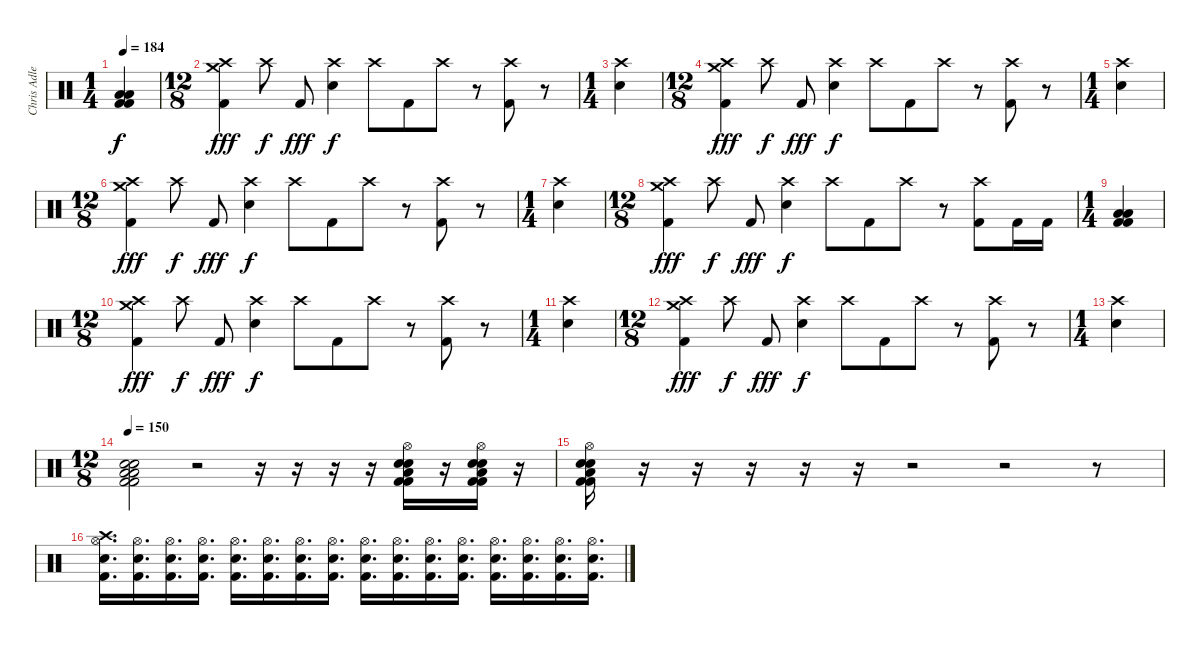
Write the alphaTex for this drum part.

\track ("Chris Adler" "Chris Adle") {instrument percussion}
\staff {score}
\articulation defaults
\ts (1 4)
\tempo 184
\clef neutral
\ks c
("Low Floor Tom (hit)" "Low Floor Tom (hit)" "Kick (hit) 2" "Kick (hit) 2").4{dy f} |
\ts (12 8)
("Crash high (hit)" "Crash medium (hit)" "Kick (hit) 2").4{dy fff} "Crash high (hit)".8{dy f} "Kick (hit) 2".8{dy fff} ("Crash high (hit)" "Electric Snare (hit)").4{dy f} "Crash high (hit)".8 "Kick (hit) 2".8 "Crash high (hit)".8 r.8 ("Crash high (hit)" "Kick (hit) 2").8 r.8 |
\ts (1 4)
("Crash high (hit)" "Electric Snare (hit)").4 |
\ts (12 8)
("Crash high (hit)" "Crash medium (hit)" "Kick (hit) 2").4{dy fff} "Crash high (hit)".8{dy f} "Kick (hit) 2".8{dy fff} ("Crash high (hit)" "Electric Snare (hit)").4{dy f} "Crash high (hit)".8 "Kick (hit) 2".8 "Crash high (hit)".8 r.8 ("Crash high (hit)" "Kick (hit) 2").8 r.8 |
\ts (1 4)
("Crash high (hit)" "Electric Snare (hit)").4 |
\ts (12 8)
("Crash high (hit)" "Crash medium (hit)" "Kick (hit) 2").4{dy fff} "Crash high (hit)".8{dy f} "Kick (hit) 2".8{dy fff} ("Crash high (hit)" "Electric Snare (hit)").4{dy f} "Crash high (hit)".8 "Kick (hit) 2".8 "Crash high (hit)".8 r.8 ("Crash high (hit)" "Kick (hit) 2").8 r.8 |
\ts (1 4)
("Crash high (hit)" "Electric Snare (hit)").4 |
\ts (12 8)
("Crash high (hit)" "Crash medium (hit)" "Kick (hit) 2").4{dy fff} "Crash high (hit)".8{dy f} "Kick (hit) 2".8{dy fff} ("Crash high (hit)" "Electric Snare (hit)").4{dy f} "Crash high (hit)".8 "Kick (hit) 2".8 "Crash high (hit)".8 r.8 ("Crash high (hit)" "Kick (hit) 2").8 "Kick (hit) 2".16 "Kick (hit) 2".16 |
\ts (1 4)
("Low Floor Tom (hit)" "Low Floor Tom (hit)" "Kick (hit) 2" "Kick (hit) 2").4 |
\ts (12 8)
("Crash high (hit)" "Crash medium (hit)" "Kick (hit) 2").4{dy fff} "Crash high (hit)".8{dy f} "Kick (hit) 2".8{dy fff} ("Crash high (hit)" "Electric Snare (hit)").4{dy f} "Crash high (hit)".8 "Kick (hit) 2".8 "Crash high (hit)".8 r.8 ("Crash high (hit)" "Kick (hit) 2").8 r.8 |
\ts (1 4)
("Crash high (hit)" "Electric Snare (hit)").4 |
\ts (12 8)
("Crash high (hit)" "Crash medium (hit)" "Kick (hit) 2").4{dy fff} "Crash high (hit)".8{dy f} "Kick (hit) 2".8{dy fff} ("Crash high (hit)" "Electric Snare (hit)").4{dy f} "Crash high (hit)".8 "Kick (hit) 2".8 "Crash high (hit)".8 r.8 ("Crash high (hit)" "Kick (hit) 2").8 r.8 |
\ts (1 4)
("Crash high (hit)" "Electric Snare (hit)").4 |
\ts (12 8)
\tempo 150
("Electric Snare (hit)" "Electric Snare (hit)" "Low Floor Tom (hit)" "Low Floor Tom (hit)" "Kick (hit) 2" "Kick (hit) 2").2 r.2 r.16 r.16 r.16 r.16 ("Hi-Hat (open)" "Electric Snare (hit)" "Electric Snare (hit)" "Low Floor Tom (hit)" "Kick (hit) 2" "Kick (hit) 2").16 r.16 ("Hi-Hat (open)" "Electric Snare (hit)" "Electric Snare (hit)" "Low Floor Tom (hit)" "Kick (hit) 2" "Kick (hit) 2").16 r.16 |
("Hi-Hat (open)" "Electric Snare (hit)" "Electric Snare (hit)" "Low Floor Tom (hit)" "Kick (hit) 2" "Kick (hit) 2").16 r.16 r.16{volume 0} r.16 r.16 r.16 r.2 r.2 r.8 |
("Crash high (hit)" "Hi-Hat (open)" "Electric Snare (hit)" "Kick (hit) 2").16{d volume 16} ("Hi-Hat (open)" "Electric Snare (hit)" "Kick (hit) 2").16{d} ("Hi-Hat (open)" "Electric Snare (hit)" "Kick (hit) 2").16{d} ("Hi-Hat (open)" "Electric Snare (hit)" "Kick (hit) 2").16{d} ("Hi-Hat (open)" "Electric Snare (hit)" "Kick (hit) 2").16{d} ("Hi-Hat (open)" "Electric Snare (hit)" "Kick (hit) 2").16{d} ("Hi-Hat (open)" "Electric Snare (hit)" "Kick (hit) 2").16{d} ("Hi-Hat (open)" "Electric Snare (hit)" "Kick (hit) 2").16{d} ("Hi-Hat (open)" "Electric Snare (hit)" "Kick (hit) 2").16{d} ("Hi-Hat (open)" "Electric Snare (hit)" "Kick (hit) 2").16{d} ("Hi-Hat (open)" "Electric Snare (hit)" "Kick (hit) 2").16{d} ("Hi-Hat (open)" "Electric Snare (hit)" "Kick (hit) 2").16{d} ("Hi-Hat (open)" "Electric Snare (hit)" "Kick (hit) 2").16{d} ("Hi-Hat (open)" "Electric Snare (hit)" "Kick (hit) 2").16{d} ("Hi-Hat (open)" "Electric Snare (hit)" "Kick (hit) 2").16{d} ("Hi-Hat (open)" "Electric Snare (hit)" "Kick (hit) 2").16{d}
